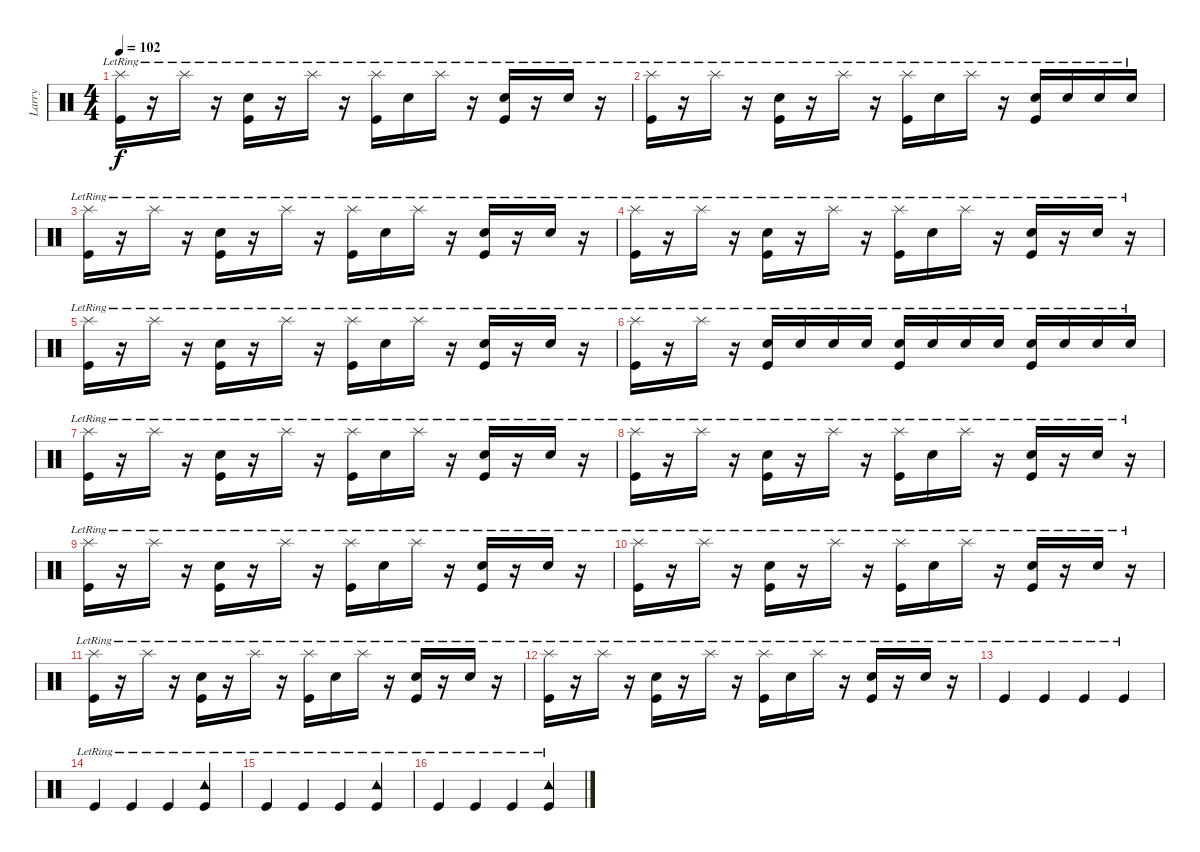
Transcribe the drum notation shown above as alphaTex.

\track ("Larry" "Larry") {instrument percussion}
\staff {score}
\articulation defaults
\ts (4 4)
\tempo 102
\clef neutral
\ks c
("Splash (hit)"{lr} "Kick (hit)"{lr}).16{dy f} r.16 "Splash (hit)"{lr}.16 r.16 ("Snare (hit) 2"{lr} "Kick (hit)"{lr}).16 r.16 "Splash (hit)"{lr}.16 r.16 ("Splash (hit)"{lr} "Kick (hit)"{lr}).16 "Snare (hit) 2"{lr}.16 "Splash (hit)"{lr}.16 r.16 ("Snare (hit) 2"{lr} "Kick (hit)"{lr}).16 r.16 "Snare (hit) 2"{lr}.16 r.16 |
("Splash (hit)"{lr} "Kick (hit)"{lr}).16 r.16 "Splash (hit)"{lr}.16 r.16 ("Snare (hit) 2"{lr} "Kick (hit)"{lr}).16 r.16 "Splash (hit)"{lr}.16 r.16 ("Splash (hit)"{lr} "Kick (hit)"{lr}).16 "Snare (hit) 2"{lr}.16 "Splash (hit)"{lr}.16 r.16 ("Snare (hit) 2"{lr} "Kick (hit)"{lr}).16 "Snare (hit) 2"{lr}.16 "Snare (hit) 2"{lr}.16 "Snare (hit) 2"{lr}.16 |
("Splash (hit)"{lr} "Kick (hit)"{lr}).16 r.16 "Splash (hit)"{lr}.16 r.16 ("Snare (hit) 2"{lr} "Kick (hit)"{lr}).16 r.16 "Splash (hit)"{lr}.16 r.16 ("Splash (hit)"{lr} "Kick (hit)"{lr}).16 "Snare (hit) 2"{lr}.16 "Splash (hit)"{lr}.16 r.16 ("Snare (hit) 2"{lr} "Kick (hit)"{lr}).16 r.16 "Snare (hit) 2"{lr}.16 r.16 |
("Splash (hit)"{lr} "Kick (hit)"{lr}).16 r.16 "Splash (hit)"{lr}.16 r.16 ("Snare (hit) 2"{lr} "Kick (hit)"{lr}).16 r.16 "Splash (hit)"{lr}.16 r.16 ("Splash (hit)"{lr} "Kick (hit)"{lr}).16 "Snare (hit) 2"{lr}.16 "Splash (hit)"{lr}.16 r.16 ("Snare (hit) 2"{lr} "Kick (hit)"{lr}).16 r.16 "Snare (hit) 2"{lr}.16 r.16 |
("Splash (hit)"{lr} "Kick (hit)"{lr}).16 r.16 "Splash (hit)"{lr}.16 r.16 ("Snare (hit) 2"{lr} "Kick (hit)"{lr}).16 r.16 "Splash (hit)"{lr}.16 r.16 ("Splash (hit)"{lr} "Kick (hit)"{lr}).16 "Snare (hit) 2"{lr}.16 "Splash (hit)"{lr}.16 r.16 ("Snare (hit) 2"{lr} "Kick (hit)"{lr}).16 r.16 "Snare (hit) 2"{lr}.16 r.16 |
("Splash (hit)"{lr} "Kick (hit)"{lr}).16 r.16 "Splash (hit)"{lr}.16 r.16 ("Snare (hit) 2"{lr} "Kick (hit)"{lr}).16 "Snare (hit) 2"{lr}.16 "Snare (hit) 2"{lr}.16 "Snare (hit) 2"{lr}.16 ("Snare (hit) 2"{lr} "Kick (hit)"{lr}).16 "Snare (hit) 2"{lr}.16 "Snare (hit) 2"{lr}.16 "Snare (hit) 2"{lr}.16 ("Snare (hit) 2"{lr} "Kick (hit)"{lr}).16 "Snare (hit) 2"{lr}.16 "Snare (hit) 2"{lr}.16 "Snare (hit) 2"{lr}.16 |
("Splash (hit)"{lr} "Kick (hit)"{lr}).16 r.16 "Splash (hit)"{lr}.16 r.16 ("Snare (hit) 2"{lr} "Kick (hit)"{lr}).16 r.16 "Splash (hit)"{lr}.16 r.16 ("Splash (hit)"{lr} "Kick (hit)"{lr}).16 "Snare (hit) 2"{lr}.16 "Splash (hit)"{lr}.16 r.16 ("Snare (hit) 2"{lr} "Kick (hit)"{lr}).16 r.16 "Snare (hit) 2"{lr}.16 r.16 |
("Splash (hit)"{lr} "Kick (hit)"{lr}).16 r.16 "Splash (hit)"{lr}.16 r.16 ("Snare (hit) 2"{lr} "Kick (hit)"{lr}).16 r.16 "Splash (hit)"{lr}.16 r.16 ("Splash (hit)"{lr} "Kick (hit)"{lr}).16 "Snare (hit) 2"{lr}.16 "Splash (hit)"{lr}.16 r.16 ("Snare (hit) 2"{lr} "Kick (hit)"{lr}).16 r.16 "Snare (hit) 2"{lr}.16 r.16 |
("Splash (hit)"{lr} "Kick (hit)"{lr}).16 r.16 "Splash (hit)"{lr}.16 r.16 ("Snare (hit) 2"{lr} "Kick (hit)"{lr}).16 r.16 "Splash (hit)"{lr}.16 r.16 ("Splash (hit)"{lr} "Kick (hit)"{lr}).16 "Snare (hit) 2"{lr}.16 "Splash (hit)"{lr}.16 r.16 ("Snare (hit) 2"{lr} "Kick (hit)"{lr}).16 r.16 "Snare (hit) 2"{lr}.16 r.16 |
("Splash (hit)"{lr} "Kick (hit)"{lr}).16 r.16 "Splash (hit)"{lr}.16 r.16 ("Snare (hit) 2"{lr} "Kick (hit)"{lr}).16 r.16 "Splash (hit)"{lr}.16 r.16 ("Splash (hit)"{lr} "Kick (hit)"{lr}).16 "Snare (hit) 2"{lr}.16 "Splash (hit)"{lr}.16 r.16 ("Snare (hit) 2"{lr} "Kick (hit)"{lr}).16 r.16 "Snare (hit) 2"{lr}.16 r.16 |
("Splash (hit)"{lr} "Kick (hit)"{lr}).16 r.16 "Splash (hit)"{lr}.16 r.16 ("Snare (hit) 2"{lr} "Kick (hit)"{lr}).16 r.16 "Splash (hit)"{lr}.16 r.16 ("Splash (hit)"{lr} "Kick (hit)"{lr}).16 "Snare (hit) 2"{lr}.16 "Splash (hit)"{lr}.16 r.16 ("Snare (hit) 2"{lr} "Kick (hit)"{lr}).16 r.16 "Snare (hit) 2"{lr}.16 r.16 |
("Splash (hit)"{lr} "Kick (hit)"{lr}).16 r.16 "Splash (hit)"{lr}.16 r.16 ("Snare (hit) 2"{lr} "Kick (hit)"{lr}).16 r.16 "Splash (hit)"{lr}.16 r.16 ("Splash (hit)"{lr} "Kick (hit)"{lr}).16 "Snare (hit) 2"{lr}.16 "Splash (hit)"{lr}.16 r.16 ("Snare (hit) 2"{lr} "Kick (hit)"{lr}).16 r.16 "Snare (hit) 2"{lr}.16 r.16 |
"Kick (hit)"{lr}.4 "Kick (hit)"{lr}.4 "Kick (hit)"{lr}.4 "Kick (hit)"{lr}.4 |
"Kick (hit)"{lr}.4 "Kick (hit)"{lr}.4 "Kick (hit)"{lr}.4 ("Tambourine (hit)"{lr} "Kick (hit)"{lr}).4 |
"Kick (hit)"{lr}.4 "Kick (hit)"{lr}.4 "Kick (hit)"{lr}.4 ("Tambourine (hit)"{lr} "Kick (hit)"{lr}).4 |
"Kick (hit)"{lr}.4 "Kick (hit)"{lr}.4 "Kick (hit)"{lr}.4 ("Tambourine (hit)"{lr} "Kick (hit)"{lr}).4
